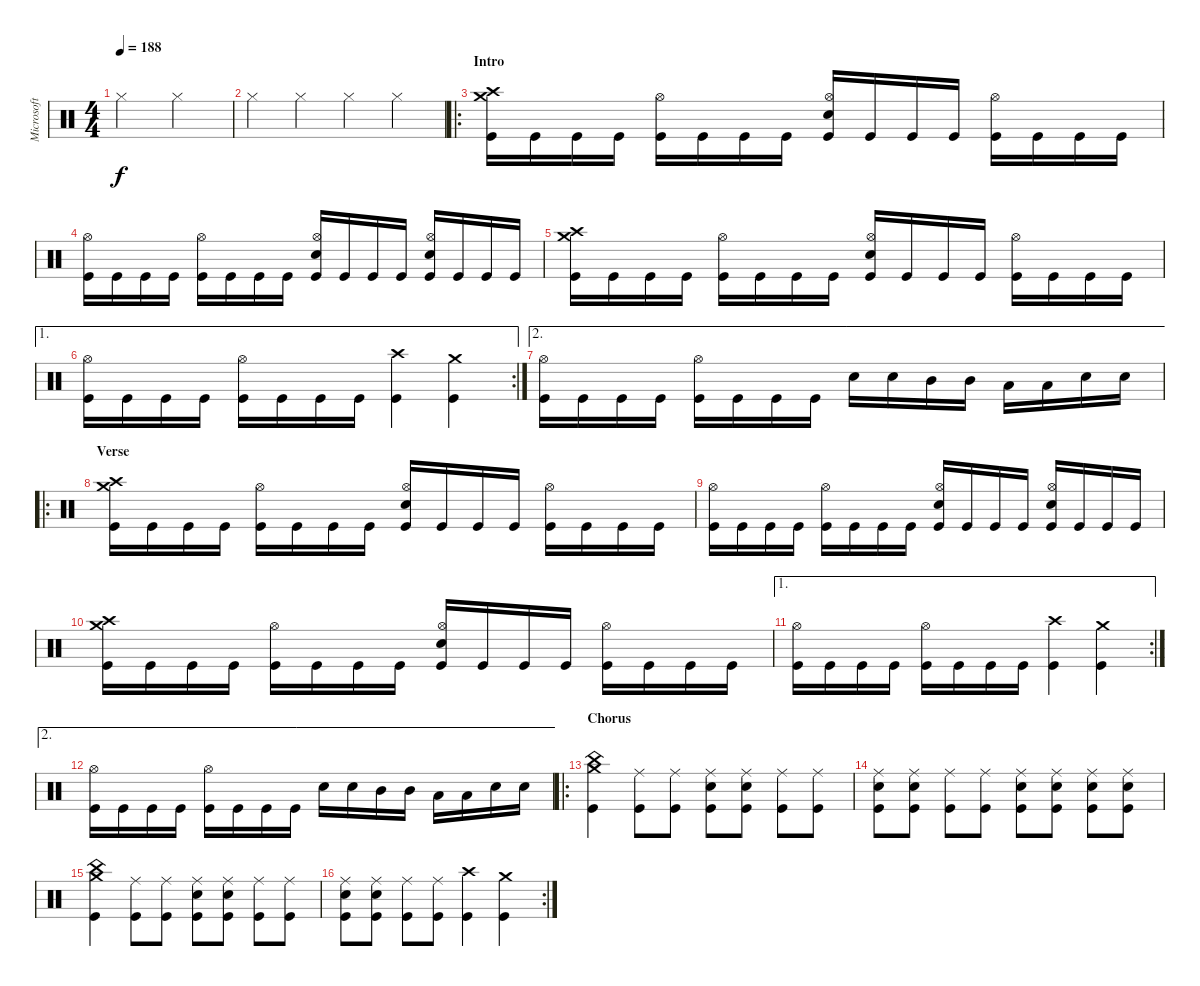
\track ("Microsoft S.A.M." "Microsoft ") {instrument percussion}
\staff {score}
\articulation defaults
\ts (4 4)
\tempo 188
\clef neutral
\ks c "Hi-Hat (closed)".2{dy f} "Hi-Hat (closed)".2
|
"Hi-Hat (closed)".4 "Hi-Hat (closed)".4 "Hi-Hat (closed)".4 "Hi-Hat (closed)".4 |
\ro
\section ("" "Intro")
("Kick (hit)" "Crash medium (hit)" "Crash high (hit)").16 "Kick (hit)".16 "Kick (hit)".16 "Kick (hit)".16 ("Kick (hit)" "Hi-Hat (open)").16 "Kick (hit)".16 "Kick (hit)".16 "Kick (hit)".16 ("Kick (hit)" "Hi-Hat (open)" "Snare (hit) 2").16 "Kick (hit)".16 "Kick (hit)".16 "Kick (hit)".16 ("Kick (hit)" "Hi-Hat (open)").16 "Kick (hit)".16 "Kick (hit)".16 "Kick (hit)".16 |
("Kick (hit)" "Hi-Hat (open)").16 "Kick (hit)".16 "Kick (hit)".16 "Kick (hit)".16 ("Kick (hit)" "Hi-Hat (open)").16 "Kick (hit)".16 "Kick (hit)".16 "Kick (hit)".16 ("Kick (hit)" "Hi-Hat (open)" "Snare (hit) 2").16 "Kick (hit)".16 "Kick (hit)".16 "Kick (hit)".16 ("Kick (hit)" "Hi-Hat (open)" "Snare (hit) 2").16 "Kick (hit)".16 "Kick (hit)".16 "Kick (hit)".16 |
("Kick (hit)" "Crash medium (hit)" "Crash high (hit)").16 "Kick (hit)".16 "Kick (hit)".16 "Kick (hit)".16 ("Kick (hit)" "Hi-Hat (open)").16 "Kick (hit)".16 "Kick (hit)".16 "Kick (hit)".16 ("Kick (hit)" "Hi-Hat (open)" "Snare (hit) 2").16 "Kick (hit)".16 "Kick (hit)".16 "Kick (hit)".16 ("Kick (hit)" "Hi-Hat (open)").16 "Kick (hit)".16 "Kick (hit)".16 "Kick (hit)".16 |
\ae 1
\rc 2
("Kick (hit)" "Hi-Hat (open)").16 "Kick (hit)".16 "Kick (hit)".16 "Kick (hit)".16 ("Kick (hit)" "Hi-Hat (open)").16 "Kick (hit)".16 "Kick (hit)".16 "Kick (hit)".16 ("Kick (hit)" "Crash high (hit)").4 ("Kick (hit)" "Crash medium (hit)").4 |
\ae 2
("Kick (hit)" "Hi-Hat (open)").16 "Kick (hit)".16 "Kick (hit)".16 "Kick (hit)".16 ("Kick (hit)" "Hi-Hat (open)").16 "Kick (hit)".16 "Kick (hit)".16 "Kick (hit)".16 "Snare (hit) 2".16 "Snare (hit) 2".16 "Mid Tom (hit)".16 "Mid Tom (hit)".16 "Low Tom (hit)".16 "Low Tom (hit)".16 "Snare (hit) 2".16 "Snare (hit) 2".16 |
\ro
\section ("" "Verse")
("Kick (hit)" "Crash medium (hit)" "Crash high (hit)").16 "Kick (hit)".16 "Kick (hit)".16 "Kick (hit)".16 ("Kick (hit)" "Hi-Hat (open)").16 "Kick (hit)".16 "Kick (hit)".16 "Kick (hit)".16 ("Kick (hit)" "Hi-Hat (open)" "Snare (hit) 2").16 "Kick (hit)".16 "Kick (hit)".16 "Kick (hit)".16 ("Kick (hit)" "Hi-Hat (open)").16 "Kick (hit)".16 "Kick (hit)".16 "Kick (hit)".16 |
("Kick (hit)" "Hi-Hat (open)").16 "Kick (hit)".16 "Kick (hit)".16 "Kick (hit)".16 ("Kick (hit)" "Hi-Hat (open)").16 "Kick (hit)".16 "Kick (hit)".16 "Kick (hit)".16 ("Kick (hit)" "Hi-Hat (open)" "Snare (hit) 2").16 "Kick (hit)".16 "Kick (hit)".16 "Kick (hit)".16 ("Kick (hit)" "Hi-Hat (open)" "Snare (hit) 2").16 "Kick (hit)".16 "Kick (hit)".16 "Kick (hit)".16 |
("Kick (hit)" "Crash medium (hit)" "Crash high (hit)").16 "Kick (hit)".16 "Kick (hit)".16 "Kick (hit)".16 ("Kick (hit)" "Hi-Hat (open)").16 "Kick (hit)".16 "Kick (hit)".16 "Kick (hit)".16 ("Kick (hit)" "Hi-Hat (open)" "Snare (hit) 2").16 "Kick (hit)".16 "Kick (hit)".16 "Kick (hit)".16 ("Kick (hit)" "Hi-Hat (open)").16 "Kick (hit)".16 "Kick (hit)".16 "Kick (hit)".16 |
\ae 1
\rc 2
("Kick (hit)" "Hi-Hat (open)").16 "Kick (hit)".16 "Kick (hit)".16 "Kick (hit)".16 ("Kick (hit)" "Hi-Hat (open)").16 "Kick (hit)".16 "Kick (hit)".16 "Kick (hit)".16 ("Kick (hit)" "Crash high (hit)").4 ("Kick (hit)" "Crash medium (hit)").4 |
\ae 2
("Kick (hit)" "Hi-Hat (open)").16 "Kick (hit)".16 "Kick (hit)".16 "Kick (hit)".16 ("Kick (hit)" "Hi-Hat (open)").16 "Kick (hit)".16 "Kick (hit)".16 "Kick (hit)".16 "Snare (hit) 2".16 "Snare (hit) 2".16 "Mid Tom (hit)".16 "Mid Tom (hit)".16 "Low Tom (hit)".16 "Low Tom (hit)".16 "Snare (hit) 2".16 "Snare (hit) 2".16 |
\ro
\section ("" "Chorus")
("Kick (hit)" "China (hit)" "Crash medium (hit)").4 ("Kick (hit)" "Ride (middle)").8 ("Kick (hit)" "Ride (middle)").8 ("Kick (hit)" "Ride (middle)" "Snare (hit) 2").8 ("Kick (hit)" "Ride (middle)" "Snare (hit) 2").8 ("Kick (hit)" "Ride (middle)").8 ("Kick (hit)" "Ride (middle)").8 |
("Kick (hit)" "Ride (middle)" "Snare (hit) 2").8 ("Kick (hit)" "Ride (middle)" "Snare (hit) 2").8 ("Kick (hit)" "Ride (middle)").8 ("Kick (hit)" "Ride (middle)").8 ("Kick (hit)" "Ride (middle)" "Snare (hit) 2").8 ("Kick (hit)" "Ride (middle)" "Snare (hit) 2").8 ("Kick (hit)" "Ride (middle)" "Snare (hit) 2").8 ("Kick (hit)" "Ride (middle)" "Snare (hit) 2").8 |
("Kick (hit)" "China (hit)" "Crash medium (hit)").4 ("Kick (hit)" "Ride (middle)").8 ("Kick (hit)" "Ride (middle)").8 ("Kick (hit)" "Ride (middle)" "Snare (hit) 2").8 ("Kick (hit)" "Ride (middle)" "Snare (hit) 2").8 ("Kick (hit)" "Ride (middle)").8 ("Kick (hit)" "Ride (middle)").8 |
\rc 2
("Kick (hit)" "Ride (middle)" "Snare (hit) 2").8 ("Kick (hit)" "Ride (middle)" "Snare (hit) 2").8 ("Kick (hit)" "Ride (middle)").8 ("Kick (hit)" "Ride (middle)").8 ("Kick (hit)" "Crash high (hit)").4 ("Kick (hit)" "Crash medium (hit)").4
